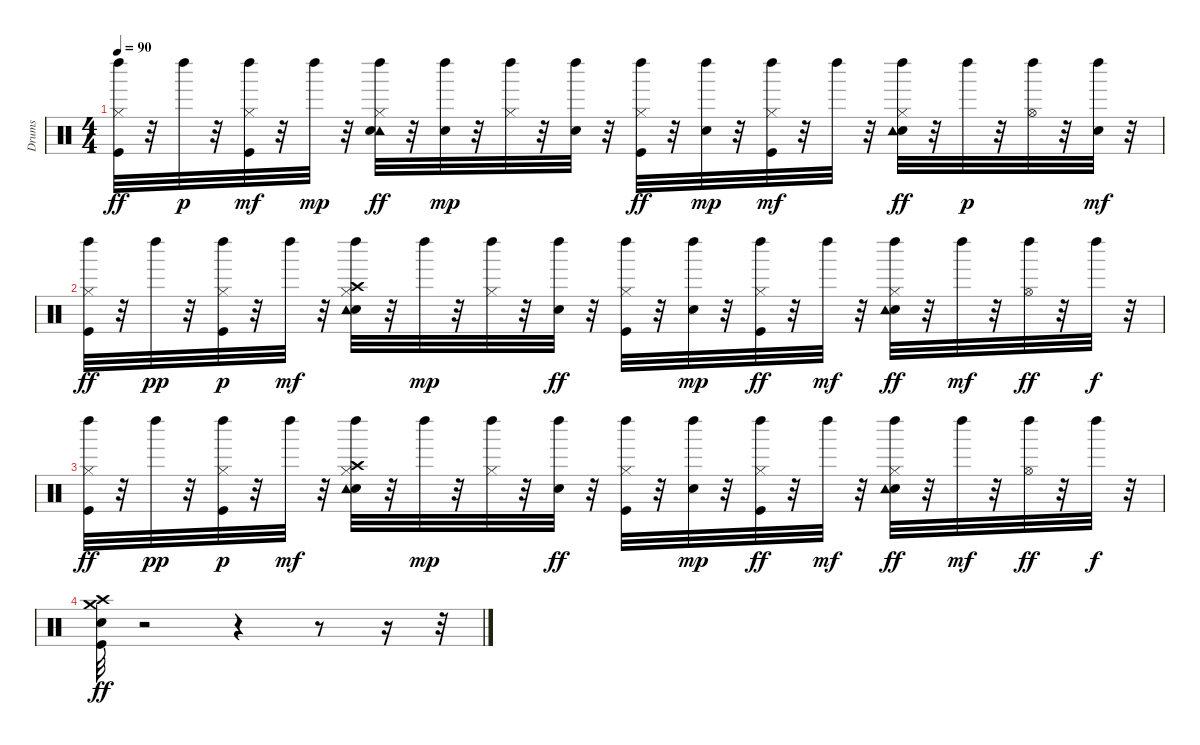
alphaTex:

\track ("Drums" "Drums") {instrument percussion}
\staff {score}
\articulation defaults
\ts (4 4)
\tempo 90
\clef neutral
\ks c
("Hi-Hat (closed)" "Kick (hit)" "Left Maraca (hit)").32{dy ff} r.32 "Left Maraca (hit)".32{dy p} r.32 ("Hi-Hat (closed)" "Kick (hit)" "Left Maraca (hit)").32{dy mf} r.32 "Left Maraca (hit)".32{dy mp} r.32 ("Hi-Hat (closed)" "Tambourine (hit)" "Electric Snare (hit)" "Left Maraca (hit)").32{dy ff} r.32 ("Electric Snare (hit)" "Left Maraca (hit)").32{dy mp} r.32 ("Hi-Hat (closed)" "Left Maraca (hit)").32 r.32 ("Electric Snare (hit)" "Left Maraca (hit)").32 r.32 ("Kick (hit)" "Left Maraca (hit)" "Hi-Hat (closed)").32{dy ff} r.32 ("Electric Snare (hit)" "Left Maraca (hit)").32{dy mp} r.32 ("Kick (hit)" "Left Maraca (hit)" "Hi-Hat (closed)").32{dy mf} r.32 "Left Maraca (hit)".32 r.32 ("Electric Snare (hit)" "Tambourine (hit)" "Left Maraca (hit)" "Hi-Hat (closed)").32{dy ff} r.32 "Left Maraca (hit)".32{dy p} r.32 ("Hi-Hat (open)" "Left Maraca (hit)").32 r.32 ("Electric Snare (hit)" "Left Maraca (hit)").32{dy mf} r.32 |
("Left Maraca (hit)" "Hi-Hat (closed)" "Kick (hit)").32{dy ff} r.32 "Left Maraca (hit)".32{dy pp} r.32 ("Hi-Hat (closed)" "Kick (hit)" "Left Maraca (hit)").32{dy p} r.32 "Left Maraca (hit)".32{dy mf} r.32 ("Hi-Hat (closed)" "Electric Snare (hit)" "Left Maraca (hit)" "Crash high (hit)" "Tambourine (hit)").32 r.32 "Left Maraca (hit)".32{dy mp} r.32 ("Hi-Hat (closed)" "Left Maraca (hit)").32 r.32 ("Electric Snare (hit)" "Left Maraca (hit)").32{dy ff} r.32 ("Hi-Hat (closed)" "Kick (hit)" "Left Maraca (hit)").32 r.32 ("Electric Snare (hit)" "Left Maraca (hit)").32{dy mp} r.32 ("Hi-Hat (closed)" "Left Maraca (hit)" "Kick (hit)").32{dy ff} r.32 "Left Maraca (hit)".32{dy mf} r.32 ("Hi-Hat (closed)" "Electric Snare (hit)" "Tambourine (hit)" "Left Maraca (hit)").32{dy ff} r.32 "Left Maraca (hit)".32{dy mf} r.32 ("Hi-Hat (open)" "Left Maraca (hit)").32{dy ff} r.32 "Left Maraca (hit)".32{dy f} r.32 |
("Left Maraca (hit)" "Hi-Hat (closed)" "Kick (hit)").32{dy ff} r.32 "Left Maraca (hit)".32{dy pp} r.32 ("Hi-Hat (closed)" "Kick (hit)" "Left Maraca (hit)").32{dy p} r.32 "Left Maraca (hit)".32{dy mf} r.32 ("Hi-Hat (closed)" "Electric Snare (hit)" "Left Maraca (hit)" "Crash high (hit)" "Tambourine (hit)").32 r.32 "Left Maraca (hit)".32{dy mp} r.32 ("Hi-Hat (closed)" "Left Maraca (hit)").32 r.32 ("Electric Snare (hit)" "Left Maraca (hit)").32{dy ff} r.32 ("Hi-Hat (closed)" "Kick (hit)" "Left Maraca (hit)").32 r.32 ("Electric Snare (hit)" "Left Maraca (hit)").32{dy mp} r.32 ("Hi-Hat (closed)" "Left Maraca (hit)" "Kick (hit)").32{dy ff} r.32 "Left Maraca (hit)".32{dy mf} r.32 ("Hi-Hat (closed)" "Electric Snare (hit)" "Tambourine (hit)" "Left Maraca (hit)").32{dy ff} r.32 "Left Maraca (hit)".32{dy mf} r.32 ("Hi-Hat (open)" "Left Maraca (hit)").32{dy ff} r.32 "Left Maraca (hit)".32{dy f} r.32 |
("Crash high (hit)" "Crash medium (hit)" "Electric Snare (hit)" "Kick (hit)").32{dy ff} r.2 r.4 r.8 r.16 r.32
